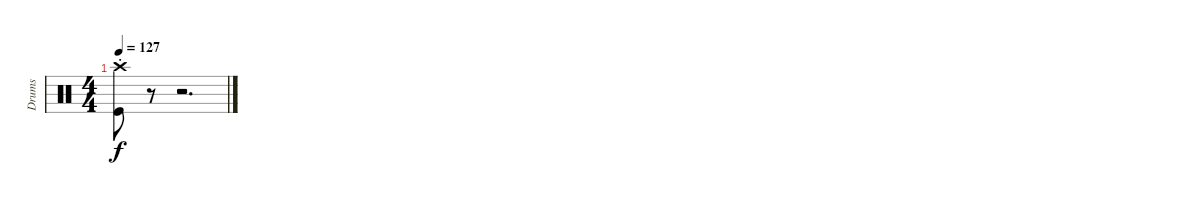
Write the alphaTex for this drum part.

\track ("Drums" "Drums") {instrument percussion}
\staff {score}
\articulation defaults
\ts (4 4)
\tempo 127
\clef neutral
\ks c
("Kick (hit)" "Crash high (hit)"{st}).8{dy f} r.8 r.2{d}
